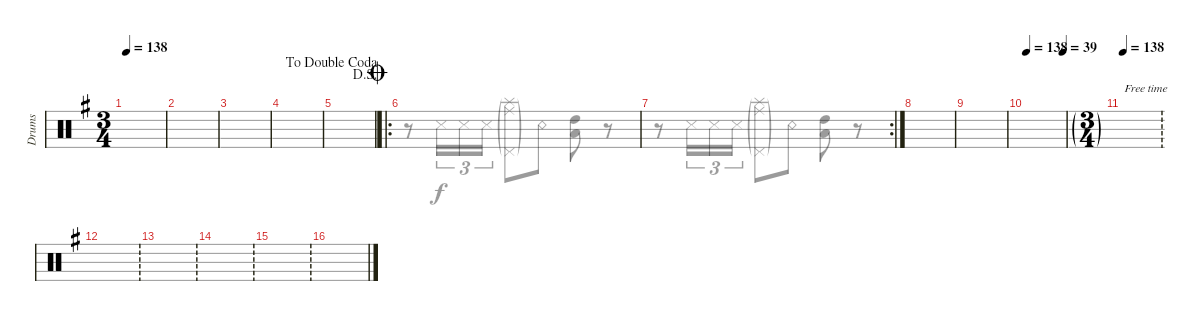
\defaultSystemsLayout 4
\bracketExtendMode groupsimilarinstruments
\otherSystemsTrackNameOrientation horizontal
\track ("Drumkit" "Drums") {instrument percussion}
\staff {score}
\articulation defaults
\voice
\ts (3 4)
\scale
0.329139
\tempo 138
\accidentals auto
\clef neutral
\ottava regular
\simile none
\ks eminor
|
\scale
0.262193 |
\scale
0.245947 |
\scale
0.258258 |
\scale
0.348315
\jump dalsegno
\jump dadoublecoda
|
\ro
\scale
0.260032
\jump coda
|
\rc 2
\scale
0.246382 |
\scale
0.458967 |
|
\scale
1.00411
\tempo 138
\tempo (39 0.94375)
|
\ft
\scale
0.296243
\tempo 138
|
\ft
\scale
0.31862 |
\ft
\scale
0.171241 |
\ft
\scale
0.405875 |
\ft
\scale
0.211332 |
\ft
\scale
0.162577
\voice
\clef neutral
\ottava regular
\simile none
\ks eminor
|
|
|
|
|
r.8{beam Down} "Snare (side stick) 3"{acc forcenatural}.16{tu (3 2) beam Down} "Snare (side stick) 3"{acc forcenatural}.16{tu (3 2) beam Down} "Snare (side stick) 3"{acc forcenatural}.16{tu (3 2) beam Down} ("Ride (middle)"{g acc forcenatural} "Splash (hit)"{g acc forcenatural} "Pedal Hi-Hat (hit)"{g acc forcenatural}).8{beam Down} "Snare (rim shot)"{acc forcenatural}.8{beam Down} ("High Tom (hit)"{acc forcenatural} "Low Tom (hit)"{acc forcenatural}).8{beam Down} r.8{beam Down} |
r.8{beam Down} "Snare (side stick) 3"{acc forcenatural}.16{tu (3 2) beam Down} "Snare (side stick) 3"{acc forcenatural}.16{tu (3 2) beam Down} "Snare (side stick) 3"{acc forcenatural}.16{tu (3 2) beam Down} ("Ride (middle)"{g acc forcenatural} "Splash (hit)"{g acc forcenatural} "Pedal Hi-Hat (hit)"{g acc forcenatural}).8{beam Down} "Snare (rim shot)"{acc forcenatural}.8{beam Down} ("High Tom (hit)"{acc forcenatural} "Low Tom (hit)"{acc forcenatural}).8{beam Down} r.8{beam Down} |
|
|
|
|
|
|
|
|
